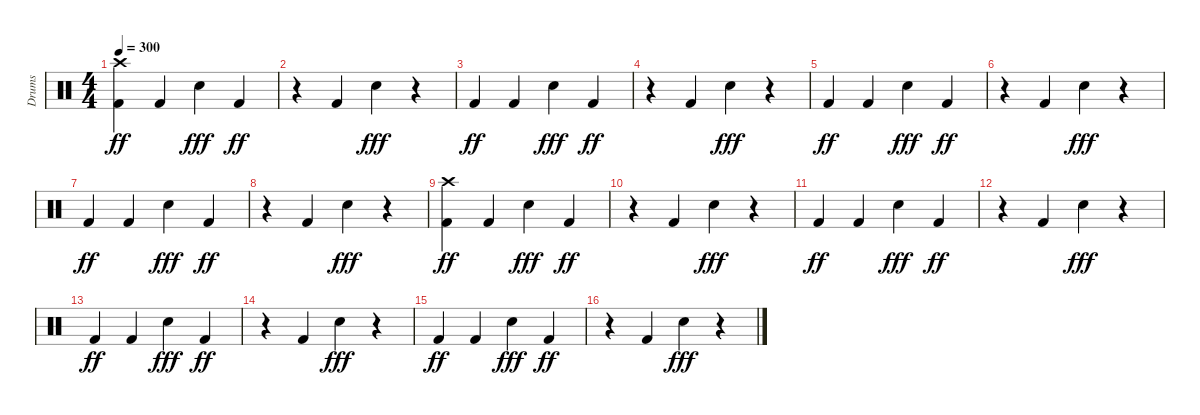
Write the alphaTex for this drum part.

\track ("Drums" "Drums") {instrument percussion}
\staff {score}
\articulation defaults
\ts (4 4)
\tempo 300
\clef neutral
\ks c
("Crash high (hit)" "Kick (hit) 2").4{dy ff} "Kick (hit) 2".4 "Electric Snare (hit)".4{dy fff} "Kick (hit) 2".4{dy ff} |
r.4 "Kick (hit) 2".4 "Electric Snare (hit)".4{dy fff} r.4 |
"Kick (hit) 2".4{dy ff} "Kick (hit) 2".4 "Electric Snare (hit)".4{dy fff} "Kick (hit) 2".4{dy ff} |
r.4 "Kick (hit) 2".4 "Electric Snare (hit)".4{dy fff} r.4 |
"Kick (hit) 2".4{dy ff} "Kick (hit) 2".4 "Electric Snare (hit)".4{dy fff} "Kick (hit) 2".4{dy ff} |
r.4 "Kick (hit) 2".4 "Electric Snare (hit)".4{dy fff} r.4 |
"Kick (hit) 2".4{dy ff} "Kick (hit) 2".4 "Electric Snare (hit)".4{dy fff} "Kick (hit) 2".4{dy ff} |
r.4 "Kick (hit) 2".4 "Electric Snare (hit)".4{dy fff} r.4 |
("Crash high (hit)" "Kick (hit) 2").4{dy ff} "Kick (hit) 2".4 "Electric Snare (hit)".4{dy fff} "Kick (hit) 2".4{dy ff} |
r.4 "Kick (hit) 2".4 "Electric Snare (hit)".4{dy fff} r.4 |
"Kick (hit) 2".4{dy ff} "Kick (hit) 2".4 "Electric Snare (hit)".4{dy fff} "Kick (hit) 2".4{dy ff} |
r.4 "Kick (hit) 2".4 "Electric Snare (hit)".4{dy fff} r.4 |
"Kick (hit) 2".4{dy ff} "Kick (hit) 2".4 "Electric Snare (hit)".4{dy fff} "Kick (hit) 2".4{dy ff} |
r.4 "Kick (hit) 2".4 "Electric Snare (hit)".4{dy fff} r.4 |
"Kick (hit) 2".4{dy ff} "Kick (hit) 2".4 "Electric Snare (hit)".4{dy fff} "Kick (hit) 2".4{dy ff} |
r.4 "Kick (hit) 2".4 "Electric Snare (hit)".4{dy fff} r.4
